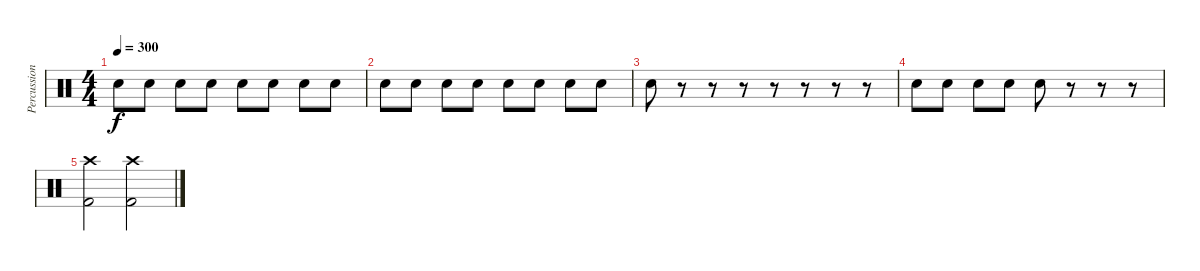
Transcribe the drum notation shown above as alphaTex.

\track ("Percussion" "Percussion") {instrument percussion}
\staff {score}
\articulation defaults
\ts (4 4)
\tempo 300
\clef neutral
\ks c "Snare (hit) 2".8{dy f} "Snare (hit) 2".8 "Snare (hit) 2".8 "Snare (hit) 2".8 "Snare (hit) 2".8 "Snare (hit) 2".8 "Snare (hit) 2".8 "Snare (hit) 2".8
|
"Snare (hit) 2".8 "Snare (hit) 2".8 "Snare (hit) 2".8 "Snare (hit) 2".8 "Snare (hit) 2".8 "Snare (hit) 2".8 "Snare (hit) 2".8 "Snare (hit) 2".8 |
"Snare (hit) 2".8 r.8 r.8 r.8 r.8 r.8 r.8 r.8 |
"Snare (hit) 2".8 "Snare (hit) 2".8 "Snare (hit) 2".8 "Snare (hit) 2".8 "Snare (hit) 2".8 r.8 r.8 r.8 |
("Kick (hit) 2" "Crash high (hit)").2 ("Kick (hit) 2" "Crash high (hit)").2
